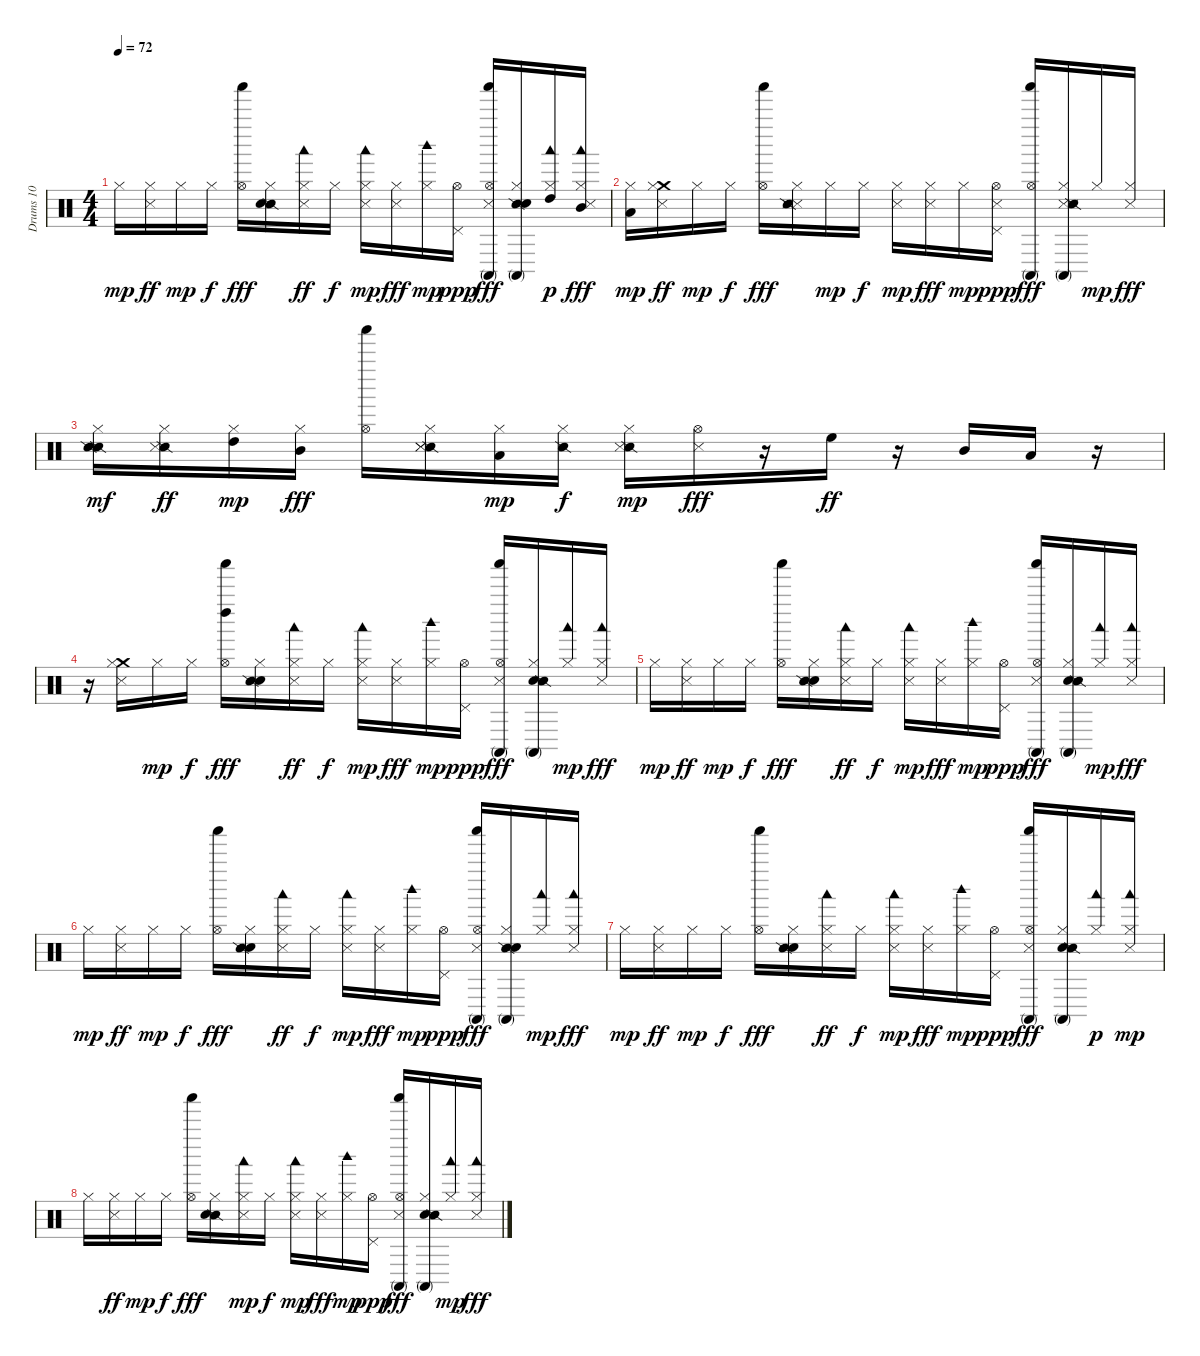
\track ("Drums 10" "Drums 10") {instrument percussion}
\staff {score}
\articulation defaults
\ts (4 4)
\tempo 72
\clef neutral
\ks c "Hi-Hat (closed)".16{dy mp}
("Metronome (hit)" "Hi-Hat (closed)").16{dy ff} "Hi-Hat (closed)".16{dy mp} "Hi-Hat (closed)".16{dy f} ("Hi-Hat (open)" "Shaker (hit)").16{dy fff} ("Snare (side stick) 2" "Hi-Hat (closed)" "Metronome (bell)").16 ("Hi-Hat (closed)" "Metronome (hit)" "Woodblock low (hit)").16{dy ff} "Hi-Hat (closed)".16{dy f} ("Hi-Hat (closed)" "Metronome (hit)" "Woodblock low (hit)").16{dy mp} ("Metronome (hit)" "Hi-Hat (closed)").16{dy fff} ("Hi-Hat (closed)" "Woodblock high (hit)").16{dy mp} ("Hi-Hat (open)" "Pedal Hi-Hat (hit)").16{dy ppp} ("Conga high (mute)" "Metronome (hit)" "Hi-Hat (open)" "Shaker (hit)").16{dy fff} ("Snare (side stick) 2" "Metronome (bell)" "Conga high (mute)" "Hi-Hat (closed)").16 ("High Tom (hit)" "Hi-Hat (closed)" "Woodblock low (hit)").16{dy p} ("Mid Tom (hit)" "Hi-Hat (closed)" "Woodblock low (hit)" "Metronome (hit)").16{dy fff} |
("Hi-Hat (closed)" "Low Tom (hit)").16{dy mp} ("Metronome (hit)" "Crash medium (hit)" "Hi-Hat (closed)").16{dy ff} "Hi-Hat (closed)".16{dy mp} "Hi-Hat (closed)".16{dy f} ("Hi-Hat (open)" "Shaker (hit)").16{dy fff} ("Snare (side stick) 3" "Snare (side stick) 3" "Snare (side stick) 2" "Hi-Hat (closed)").16 "Hi-Hat (closed)".16{dy mp} "Hi-Hat (closed)".16{dy f} ("Metronome (hit)" "Hi-Hat (closed)").16{dy mp} ("Metronome (hit)" "Hi-Hat (closed)").16{dy fff} "Hi-Hat (closed)".16{dy mp} ("Metronome (hit)" "Hi-Hat (open)" "Pedal Hi-Hat (hit)").16{dy ppp} ("Hi-Hat (open)" "Conga high (mute)" "Shaker (hit)").16{dy fff} ("Snare (side stick) 3" "Snare (side stick) 3" "Snare (side stick) 2" "Conga high (mute)" "Hi-Hat (closed)").16 "Hi-Hat (closed)".16{dy mp} ("Hi-Hat (closed)" "Metronome (hit)").16{dy fff} |
("Hi-Hat (closed)" "Snare (side stick) 2" "Snare (side stick) 2").16{dy mf} ("Snare (side stick) 2" "Metronome (hit)" "Hi-Hat (closed)").16{dy ff} ("High Tom (hit)" "Hi-Hat (closed)").16{dy mp} ("Mid Tom (hit)" "Hi-Hat (closed)").16{dy fff} ("Hi-Hat (open)" "Shaker (hit)").16 ("Hi-Hat (closed)" "Snare (side stick) 2" "Snare (side stick) 3" "Snare (side stick) 3").16 ("Low Tom (hit)" "Hi-Hat (closed)").16{dy mp} ("Snare (side stick) 2" "Hi-Hat (closed)").16{dy f} ("Snare (side stick) 2" "Hi-Hat (closed)" "Metronome (hit)").16{dy mp} ("Hi-Hat (open)" "Metronome (hit)").16{dy fff} r.16 "High Floor Tom (hit)".16{dy ff} r.16 "Mid Tom (hit)".16 "Low Tom (hit)".16 r.16 |
r.16 ("Crash medium (hit)" "Hi-Hat (closed)" "Metronome (hit)").16 "Hi-Hat (closed)".16{dy mp} "Hi-Hat (closed)".16{dy f} ("Left Maraca (hit)" "Hi-Hat (open)" "Shaker (hit)").16{dy fff} ("Metronome (bell)" "Hi-Hat (closed)" "Snare (side stick) 2").16 ("Woodblock low (hit)" "Hi-Hat (closed)" "Metronome (hit)").16{dy ff} "Hi-Hat (closed)".16{dy f} ("Woodblock low (hit)" "Hi-Hat (closed)" "Metronome (hit)").16{dy mp} ("Hi-Hat (closed)" "Metronome (hit)").16{dy fff} ("Woodblock high (hit)" "Hi-Hat (closed)").16{dy mp} ("Hi-Hat (open)" "Pedal Hi-Hat (hit)").16{dy ppp} ("Hi-Hat (open)" "Metronome (hit)" "Conga high (mute)" "Shaker (hit)").16{dy fff} ("Metronome (bell)" "Conga high (mute)" "Hi-Hat (closed)" "Snare (side stick) 2").16 ("Woodblock low (hit)" "Hi-Hat (closed)").16{dy mp} ("Woodblock low (hit)" "Hi-Hat (closed)" "Metronome (hit)").16{dy fff} |
"Hi-Hat (closed)".16{dy mp} ("Hi-Hat (closed)" "Metronome (hit)").16{dy ff} "Hi-Hat (closed)".16{dy mp} "Hi-Hat (closed)".16{dy f} ("Hi-Hat (open)" "Shaker (hit)").16{dy fff} ("Metronome (bell)" "Snare (side stick) 2" "Hi-Hat (closed)").16 ("Woodblock low (hit)" "Hi-Hat (closed)" "Metronome (hit)").16{dy ff} "Hi-Hat (closed)".16{dy f} ("Woodblock low (hit)" "Hi-Hat (closed)" "Metronome (hit)").16{dy mp} ("Hi-Hat (closed)" "Metronome (hit)").16{dy fff} ("Woodblock high (hit)" "Hi-Hat (closed)").16{dy mp} ("Hi-Hat (open)" "Pedal Hi-Hat (hit)").16{dy ppp} ("Conga high (mute)" "Hi-Hat (open)" "Metronome (hit)" "Shaker (hit)").16{dy fff} ("Metronome (bell)" "Conga high (mute)" "Snare (side stick) 2" "Hi-Hat (closed)").16 ("Woodblock low (hit)" "Hi-Hat (closed)").16{dy mp} ("Woodblock low (hit)" "Hi-Hat (closed)" "Metronome (hit)").16{dy fff} |
"Hi-Hat (closed)".16{dy mp} ("Hi-Hat (closed)" "Metronome (hit)").16{dy ff} "Hi-Hat (closed)".16{dy mp} "Hi-Hat (closed)".16{dy f} ("Hi-Hat (open)" "Shaker (hit)").16{dy fff} ("Metronome (bell)" "Hi-Hat (closed)" "Snare (side stick) 2").16 ("Woodblock low (hit)" "Hi-Hat (closed)" "Metronome (hit)").16{dy ff} "Hi-Hat (closed)".16{dy f} ("Metronome (hit)" "Hi-Hat (closed)" "Woodblock low (hit)").16{dy mp} ("Metronome (hit)" "Hi-Hat (closed)").16{dy fff} ("Woodblock high (hit)" "Hi-Hat (closed)").16{dy mp} ("Hi-Hat (open)" "Pedal Hi-Hat (hit)").16{dy ppp} ("Hi-Hat (open)" "Conga high (mute)" "Metronome (hit)" "Shaker (hit)").16{dy fff} ("Snare (side stick) 2" "Metronome (bell)" "Hi-Hat (closed)" "Conga high (mute)").16 ("Hi-Hat (closed)" "Woodblock low (hit)").16{dy mp} ("Hi-Hat (closed)" "Woodblock low (hit)" "Metronome (hit)").16{dy fff} |
"Hi-Hat (closed)".16{dy mp} ("Metronome (hit)" "Hi-Hat (closed)").16{dy ff} "Hi-Hat (closed)".16{dy mp} "Hi-Hat (closed)".16{dy f} ("Hi-Hat (open)" "Shaker (hit)").16{dy fff} ("Metronome (bell)" "Hi-Hat (closed)" "Snare (side stick) 2").16 ("Hi-Hat (closed)" "Woodblock low (hit)" "Metronome (hit)").16{dy ff} "Hi-Hat (closed)".16{dy f} ("Metronome (hit)" "Woodblock low (hit)" "Hi-Hat (closed)").16{dy mp} ("Metronome (hit)" "Hi-Hat (closed)").16{dy fff} ("Hi-Hat (closed)" "Woodblock high (hit)").16{dy mp} ("Hi-Hat (open)" "Pedal Hi-Hat (hit)").16{dy ppp} ("Metronome (hit)" "Conga high (mute)" "Hi-Hat (open)" "Shaker (hit)").16{dy fff} ("Conga high (mute)" "Metronome (bell)" "Snare (side stick) 2" "Hi-Hat (closed)").16 ("Hi-Hat (closed)" "Woodblock low (hit)").16{dy p} ("Metronome (hit)" "Woodblock low (hit)" "Hi-Hat (closed)").16{dy mp} |
"Hi-Hat (closed)".16 ("Hi-Hat (closed)" "Metronome (hit)").16{dy ff} "Hi-Hat (closed)".16{dy mp} "Hi-Hat (closed)".16{dy f} ("Hi-Hat (open)" "Shaker (hit)").16{dy fff} ("Hi-Hat (closed)" "Snare (side stick) 2" "Metronome (bell)").16 ("Woodblock low (hit)" "Metronome (hit)" "Hi-Hat (closed)").16{dy mp} "Hi-Hat (closed)".16{dy f} ("Hi-Hat (closed)" "Woodblock low (hit)" "Metronome (hit)").16{dy mp} ("Metronome (hit)" "Hi-Hat (closed)").16{dy fff} ("Woodblock high (hit)" "Hi-Hat (closed)").16{dy mp} ("Hi-Hat (open)" "Pedal Hi-Hat (hit)").16{dy ppp} ("Metronome (hit)" "Conga high (mute)" "Hi-Hat (open)" "Shaker (hit)").16{dy fff} ("Metronome (bell)" "Hi-Hat (closed)" "Conga high (mute)" "Snare (side stick) 2").16 ("Woodblock low (hit)" "Hi-Hat (closed)").16{dy mp} ("Woodblock low (hit)" "Metronome (hit)" "Hi-Hat (closed)").16{dy fff}
